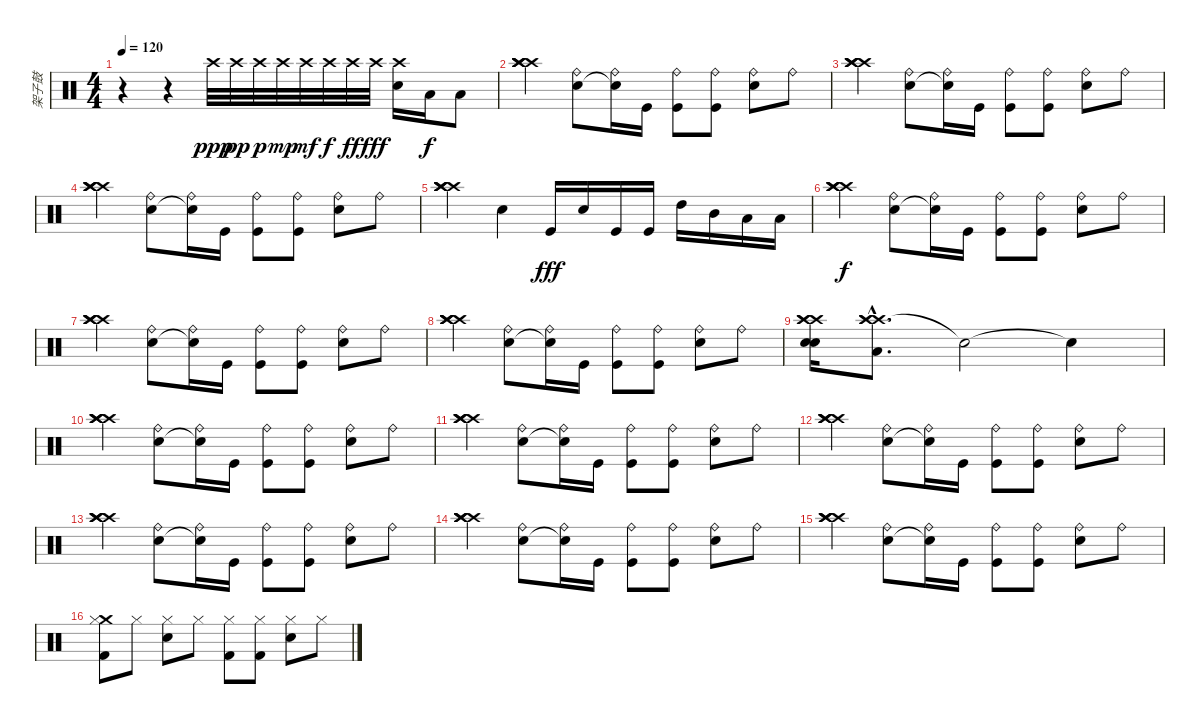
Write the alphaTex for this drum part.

\track ("架子鼓" "架子鼓") {instrument percussion}
\staff {score}
\articulation defaults
\ts (4 4)
\tempo 120
\clef neutral
\ks c
r.4{dy ppp} r.4 "Crash high (hit)".32 "Crash high (hit)".32{dy pp} "Crash high (hit)".32{dy p} "Crash high (hit)".32{dy mp} "Crash high (hit)".32{dy mf} "Crash high (hit)".32{dy f} "Crash high (hit)".32{dy ff} "Crash high (hit)".32{dy fff} ("Crash high (hit)" "Snare (hit) 2").16 "Low Floor Tom (hit)".16{dy f} "Low Tom (hit)".8 |
("Crash high (hit)" "Crash high (hit)" "Crash high (hit)" "Crash high (hit)").4 ("Ride (bell)" "Snare (hit) 2").8 ("Ride (bell)" "Snare (hit)"{t}).16 "Kick (hit)".16 ("Ride (bell)" "Kick (hit)").8 ("Ride (bell)" "Kick (hit)").8 ("Ride (bell)" "Snare (hit) 2").8 "Ride (bell)".8 |
("Crash high (hit)" "Crash high (hit)" "Crash high (hit)" "Crash high (hit)").4 ("Ride (bell)" "Snare (hit) 2").8 ("Ride (bell)" "Snare (hit)"{t}).16 "Kick (hit)".16 ("Ride (bell)" "Kick (hit)").8 ("Ride (bell)" "Kick (hit)").8 ("Ride (bell)" "Snare (hit) 2").8 "Ride (bell)".8 |
("Crash high (hit)" "Crash high (hit)" "Crash high (hit)" "Crash high (hit)").4 ("Ride (bell)" "Snare (hit) 2").8 ("Ride (bell)" "Snare (hit)"{t}).16 "Kick (hit)".16 ("Ride (bell)" "Kick (hit)").8 ("Ride (bell)" "Kick (hit)").8 ("Ride (bell)" "Snare (hit) 2").8 "Ride (bell)".8 |
("Crash high (hit)" "Crash high (hit)" "Crash high (hit)" "Crash high (hit)").4 "Snare (hit) 2".4 "Kick (hit)".16{dy fff} "Snare (hit) 2".16 "Kick (hit)".16 "Kick (hit)".16 "High Tom (hit)".16 "Mid Tom (hit)".16 "Low Tom (hit)".16 "Low Tom (hit)".16 |
("Crash high (hit)" "Crash high (hit)" "Crash high (hit)" "Crash high (hit)").4{dy f} ("Ride (bell)" "Snare (hit) 2").8 ("Ride (bell)" "Snare (hit)"{t}).16 "Kick (hit)".16 ("Ride (bell)" "Kick (hit)").8 ("Ride (bell)" "Kick (hit)").8 ("Ride (bell)" "Snare (hit) 2").8 "Ride (bell)".8 |
("Crash high (hit)" "Crash high (hit)" "Crash high (hit)" "Crash high (hit)").4 ("Ride (bell)" "Snare (hit) 2").8 ("Ride (bell)" "Snare (hit)"{t}).16 "Kick (hit)".16 ("Ride (bell)" "Kick (hit)").8 ("Ride (bell)" "Kick (hit)").8 ("Ride (bell)" "Snare (hit) 2").8 "Ride (bell)".8 |
("Crash high (hit)" "Crash high (hit)" "Crash high (hit)" "Crash high (hit)").4 ("Ride (bell)" "Snare (hit) 2").8 ("Ride (bell)" "Snare (hit)"{t}).16 "Kick (hit)".16 ("Ride (bell)" "Kick (hit)").8 ("Ride (bell)" "Kick (hit)").8 ("Ride (bell)" "Snare (hit) 2").8 "Ride (bell)".8 |
("Crash high (hit)" "Crash high (hit)" "Crash high (hit)" "Snare (hit) 2" "Snare (hit) 2").16 ("Crash high (hit)"{hac} "Crash high (hit)"{hac} "Crash high (hit)"{hac} "Low Tom (hit)"{hac}).8{d} "Snare (hit)"{t}.2 "Snare (hit)"{t}.4 |
("Crash high (hit)" "Crash high (hit)" "Crash high (hit)" "Crash high (hit)").4 ("Ride (bell)" "Snare (hit) 2").8 ("Ride (bell)" "Snare (hit)"{t}).16 "Kick (hit)".16 ("Ride (bell)" "Kick (hit)").8 ("Ride (bell)" "Kick (hit)").8 ("Ride (bell)" "Snare (hit) 2").8 "Ride (bell)".8 |
("Crash high (hit)" "Crash high (hit)" "Crash high (hit)" "Crash high (hit)").4 ("Ride (bell)" "Snare (hit) 2").8 ("Ride (bell)" "Snare (hit)"{t}).16 "Kick (hit)".16 ("Ride (bell)" "Kick (hit)").8 ("Ride (bell)" "Kick (hit)").8 ("Ride (bell)" "Snare (hit) 2").8 "Ride (bell)".8 |
("Crash high (hit)" "Crash high (hit)" "Crash high (hit)" "Crash high (hit)").4 ("Ride (bell)" "Snare (hit) 2").8 ("Ride (bell)" "Snare (hit)"{t}).16 "Kick (hit)".16 ("Ride (bell)" "Kick (hit)").8 ("Ride (bell)" "Kick (hit)").8 ("Ride (bell)" "Snare (hit) 2").8 "Ride (bell)".8 |
("Crash high (hit)" "Crash high (hit)" "Crash high (hit)" "Crash high (hit)").4 ("Ride (bell)" "Snare (hit) 2").8 ("Ride (bell)" "Snare (hit)"{t}).16 "Kick (hit)".16 ("Ride (bell)" "Kick (hit)").8 ("Ride (bell)" "Kick (hit)").8 ("Ride (bell)" "Snare (hit) 2").8 "Ride (bell)".8 |
("Crash high (hit)" "Crash high (hit)" "Crash high (hit)" "Crash high (hit)").4 ("Ride (bell)" "Snare (hit) 2").8 ("Ride (bell)" "Snare (hit)"{t}).16 "Kick (hit)".16 ("Ride (bell)" "Kick (hit)").8 ("Ride (bell)" "Kick (hit)").8 ("Ride (bell)" "Snare (hit) 2").8 "Ride (bell)".8 |
("Crash high (hit)" "Crash high (hit)" "Crash high (hit)" "Crash high (hit)").4 ("Ride (bell)" "Snare (hit) 2").8 ("Ride (bell)" "Snare (hit)"{t}).16 "Kick (hit)".16 ("Ride (bell)" "Kick (hit)").8 ("Ride (bell)" "Kick (hit)").8 ("Ride (bell)" "Snare (hit) 2").8 "Ride (bell)".8 |
("Crash medium (hit)" "Hi-Hat (closed)" "Kick (hit) 2").8 "Hi-Hat (closed)".8 ("Snare (hit) 2" "Hi-Hat (closed)").8 "Hi-Hat (closed)".8 ("Hi-Hat (closed)" "Kick (hit) 2").8 ("Hi-Hat (closed)" "Kick (hit) 2").8 ("Snare (hit) 2" "Hi-Hat (closed)").8 "Hi-Hat (closed)".8
